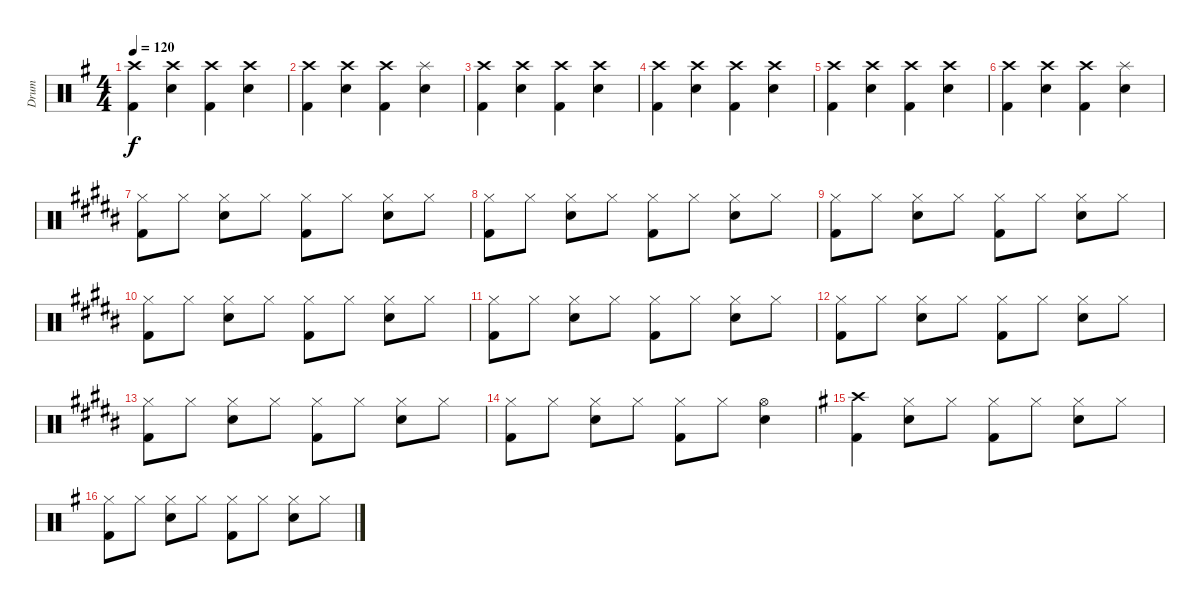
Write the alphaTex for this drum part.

\track ("Drum" "Drum") {instrument percussion}
\staff {score}
\articulation defaults
\ts (4 4)
\tempo 120
\clef neutral
\ks g
("Crash high (hit)" "Kick (hit) 2").4{dy f} ("Crash high (hit)" "Electric Snare (hit)").4 ("Crash high (hit)" "Kick (hit) 2").4 ("Crash high (hit)" "Electric Snare (hit)").4 |
("Crash high (hit)" "Kick (hit) 2").4 ("Crash high (hit)" "Electric Snare (hit)").4 ("Crash high (hit)" "Kick (hit) 2").4 ("Splash (hit)" "Electric Snare (hit)").4 |
("Crash high (hit)" "Kick (hit) 2").4 ("Crash high (hit)" "Electric Snare (hit)").4 ("Crash high (hit)" "Kick (hit) 2").4 ("Crash high (hit)" "Electric Snare (hit)").4 |
("Crash high (hit)" "Kick (hit) 2").4 ("Crash high (hit)" "Electric Snare (hit)").4 ("Crash high (hit)" "Kick (hit) 2").4 ("Crash high (hit)" "Electric Snare (hit)").4 |
("Crash high (hit)" "Kick (hit) 2").4 ("Crash high (hit)" "Electric Snare (hit)").4 ("Crash high (hit)" "Kick (hit) 2").4 ("Crash high (hit)" "Electric Snare (hit)").4 |
("Crash high (hit)" "Kick (hit) 2").4 ("Crash high (hit)" "Electric Snare (hit)").4 ("Crash high (hit)" "Kick (hit) 2").4 ("Splash (hit)" "Electric Snare (hit)").4 |
\ks b
("Hi-Hat (closed)" "Kick (hit) 2").8 "Hi-Hat (closed)".8 ("Hi-Hat (closed)" "Electric Snare (hit)").8 "Hi-Hat (closed)".8 ("Hi-Hat (closed)" "Kick (hit) 2").8 "Hi-Hat (closed)".8 ("Hi-Hat (closed)" "Electric Snare (hit)").8 "Hi-Hat (closed)".8 |
("Hi-Hat (closed)" "Kick (hit) 2").8 "Hi-Hat (closed)".8 ("Hi-Hat (closed)" "Electric Snare (hit)").8 "Hi-Hat (closed)".8 ("Hi-Hat (closed)" "Kick (hit) 2").8 "Hi-Hat (closed)".8 ("Hi-Hat (closed)" "Electric Snare (hit)").8 "Hi-Hat (closed)".8 |
("Hi-Hat (closed)" "Kick (hit) 2").8 "Hi-Hat (closed)".8 ("Hi-Hat (closed)" "Electric Snare (hit)").8 "Hi-Hat (closed)".8 ("Hi-Hat (closed)" "Kick (hit) 2").8 "Hi-Hat (closed)".8 ("Hi-Hat (closed)" "Electric Snare (hit)").8 "Hi-Hat (closed)".8 |
("Hi-Hat (closed)" "Kick (hit) 2").8 "Hi-Hat (closed)".8 ("Hi-Hat (closed)" "Electric Snare (hit)").8 "Hi-Hat (closed)".8 ("Hi-Hat (closed)" "Kick (hit) 2").8 "Hi-Hat (closed)".8 ("Hi-Hat (closed)" "Electric Snare (hit)").8 "Hi-Hat (closed)".8 |
("Hi-Hat (closed)" "Kick (hit) 2").8 "Hi-Hat (closed)".8 ("Hi-Hat (closed)" "Electric Snare (hit)").8 "Hi-Hat (closed)".8 ("Hi-Hat (closed)" "Kick (hit) 2").8 "Hi-Hat (closed)".8 ("Hi-Hat (closed)" "Electric Snare (hit)").8 "Hi-Hat (closed)".8 |
("Hi-Hat (closed)" "Kick (hit) 2").8 "Hi-Hat (closed)".8 ("Hi-Hat (closed)" "Electric Snare (hit)").8 "Hi-Hat (closed)".8 ("Hi-Hat (closed)" "Kick (hit) 2").8 "Hi-Hat (closed)".8 ("Hi-Hat (closed)" "Electric Snare (hit)").8 "Hi-Hat (closed)".8 |
("Hi-Hat (closed)" "Kick (hit) 2").8 "Hi-Hat (closed)".8 ("Hi-Hat (closed)" "Electric Snare (hit)").8 "Hi-Hat (closed)".8 ("Hi-Hat (closed)" "Kick (hit) 2").8 "Hi-Hat (closed)".8 ("Hi-Hat (closed)" "Electric Snare (hit)").8 "Hi-Hat (closed)".8 |
("Hi-Hat (closed)" "Kick (hit) 2").8 "Hi-Hat (closed)".8 ("Hi-Hat (closed)" "Electric Snare (hit)").8 "Hi-Hat (closed)".8 ("Hi-Hat (closed)" "Kick (hit) 2").8 "Hi-Hat (closed)".8 ("Hi-Hat (open)" "Electric Snare (hit)").4 |
\ks g
("Kick (hit) 2" "Crash high (hit)").4 ("Hi-Hat (closed)" "Electric Snare (hit)").8 "Hi-Hat (closed)".8 ("Hi-Hat (closed)" "Kick (hit) 2").8 "Hi-Hat (closed)".8 ("Hi-Hat (closed)" "Electric Snare (hit)").8 "Hi-Hat (closed)".8 |
("Hi-Hat (closed)" "Kick (hit) 2").8 "Hi-Hat (closed)".8 ("Hi-Hat (closed)" "Electric Snare (hit)").8 "Hi-Hat (closed)".8 ("Hi-Hat (closed)" "Kick (hit) 2").8 "Hi-Hat (closed)".8 ("Hi-Hat (closed)" "Electric Snare (hit)").8 "Hi-Hat (closed)".8
